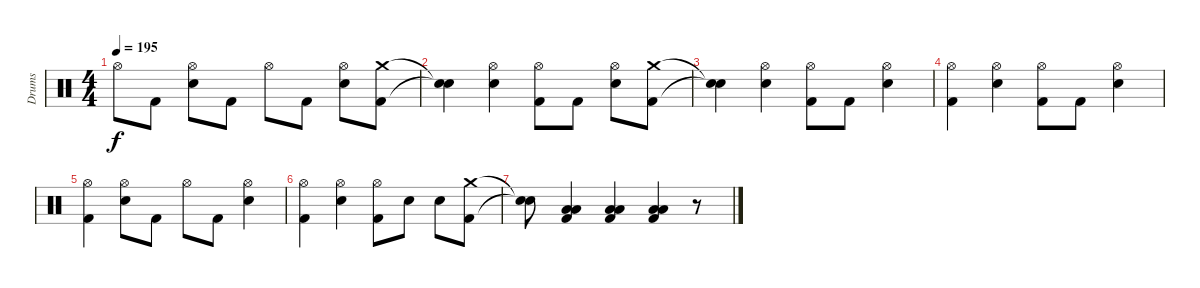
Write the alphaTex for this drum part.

\track ("Drums" "Drums") {instrument percussion}
\staff {score}
\articulation defaults
\ts (4 4)
\tempo 195
\clef neutral
\ks c "Hi-Hat (open)".8{dy f} "Kick (hit) 2".8
("Hi-Hat (open)" "Electric Snare (hit)").8 "Kick (hit) 2".8 "Hi-Hat (open)".8 "Kick (hit) 2".8 ("Hi-Hat (open)" "Electric Snare (hit)").8 ("Crash medium (hit)" "Kick (hit) 2").8 |
("Snare (hit)"{t} "Snare (hit)"{t}).4 ("Hi-Hat (open)" "Electric Snare (hit)").4 ("Hi-Hat (open)" "Kick (hit) 2").8 "Kick (hit) 2".8 ("Hi-Hat (open)" "Electric Snare (hit)").8 ("Crash medium (hit)" "Kick (hit) 2").8 |
("Snare (hit)"{t} "Snare (hit)"{t}).4 ("Hi-Hat (open)" "Electric Snare (hit)").4 ("Hi-Hat (open)" "Kick (hit) 2").8 "Kick (hit) 2".8 ("Hi-Hat (open)" "Electric Snare (hit)").4 |
("Hi-Hat (open)" "Kick (hit) 2").4 ("Hi-Hat (open)" "Electric Snare (hit)").4 ("Hi-Hat (open)" "Kick (hit) 2").8 "Kick (hit) 2".8 ("Hi-Hat (open)" "Electric Snare (hit)").4 |
("Hi-Hat (open)" "Kick (hit) 2").4 ("Hi-Hat (open)" "Electric Snare (hit)").8 "Kick (hit) 2".8 "Hi-Hat (open)".8 "Kick (hit) 2".8 ("Hi-Hat (open)" "Electric Snare (hit)").4 |
("Hi-Hat (open)" "Kick (hit) 2").4 ("Hi-Hat (open)" "Electric Snare (hit)").4 ("Hi-Hat (open)" "Kick (hit) 2").8 "Electric Snare (hit)".8 "Electric Snare (hit)".8 ("Crash medium (hit)" "Kick (hit) 2").8 |
("Snare (hit)"{t} "Snare (hit)"{t}).8 ("Low Tom (hit)" "Low Tom (hit)" "Kick (hit) 2").4 ("Low Tom (hit)" "Low Tom (hit)" "Kick (hit) 2").4 ("Low Tom (hit)" "Low Tom (hit)" "Kick (hit) 2").4 r.8
